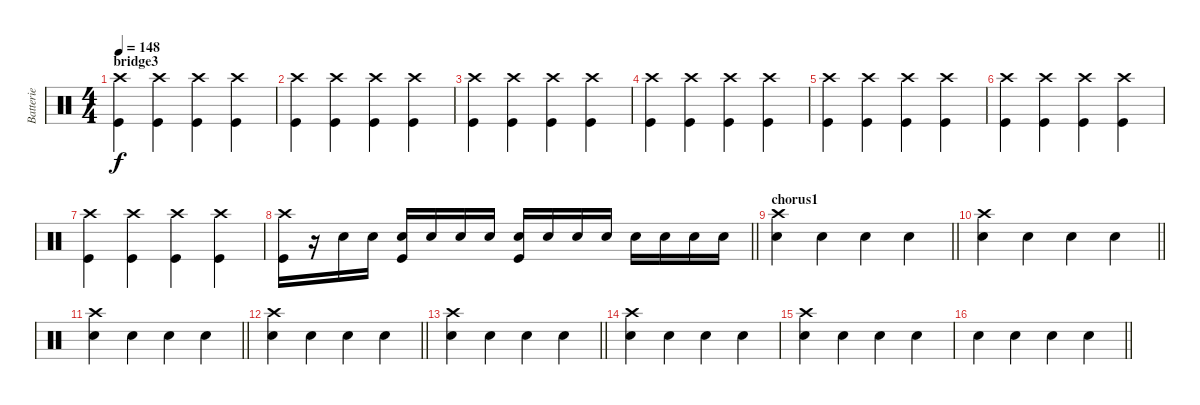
\track ("Batterie" "Batterie") {instrument percussion}
\staff {score}
\articulation defaults
\ts (4 4)
\section ("" "bridge3")
\tempo 148
\clef neutral
\ks c
("Crash high (hit)" "Kick (hit)").4{dy f} ("Crash high (hit)" "Kick (hit)").4 ("Crash high (hit)" "Kick (hit)").4 ("Crash high (hit)" "Kick (hit)").4 |
("Crash high (hit)" "Kick (hit)").4 ("Crash high (hit)" "Kick (hit)").4 ("Crash high (hit)" "Kick (hit)").4 ("Crash high (hit)" "Kick (hit)").4 |
("Crash high (hit)" "Kick (hit)").4 ("Crash high (hit)" "Kick (hit)").4 ("Crash high (hit)" "Kick (hit)").4 ("Crash high (hit)" "Kick (hit)").4 |
("Crash high (hit)" "Kick (hit)").4 ("Crash high (hit)" "Kick (hit)").4 ("Crash high (hit)" "Kick (hit)").4 ("Crash high (hit)" "Kick (hit)").4 |
("Crash high (hit)" "Kick (hit)").4 ("Crash high (hit)" "Kick (hit)").4 ("Crash high (hit)" "Kick (hit)").4 ("Crash high (hit)" "Kick (hit)").4 |
("Crash high (hit)" "Kick (hit)").4 ("Crash high (hit)" "Kick (hit)").4 ("Crash high (hit)" "Kick (hit)").4 ("Crash high (hit)" "Kick (hit)").4 |
("Crash high (hit)" "Kick (hit)").4 ("Crash high (hit)" "Kick (hit)").4 ("Crash high (hit)" "Kick (hit)").4 ("Crash high (hit)" "Kick (hit)").4 |
\barLineRight lightlight
("Crash high (hit)" "Kick (hit)").16 r.16 "Electric Snare (hit)".16 "Electric Snare (hit)".16 ("Electric Snare (hit)" "Kick (hit)").16 "Electric Snare (hit)".16 "Electric Snare (hit)".16 "Electric Snare (hit)".16 ("Electric Snare (hit)" "Kick (hit)").16 "Electric Snare (hit)".16 "Electric Snare (hit)".16 "Electric Snare (hit)".16 "Electric Snare (hit)".16 "Electric Snare (hit)".16 "Electric Snare (hit)".16 "Electric Snare (hit)".16 |
\section ("" "chorus1")
\barLineRight lightlight
("Crash high (hit)" "Electric Snare (hit)").4 "Electric Snare (hit)".4 "Electric Snare (hit)".4 "Electric Snare (hit)".4 |
\barLineRight lightlight
("Crash high (hit)" "Electric Snare (hit)").4 "Electric Snare (hit)".4 "Electric Snare (hit)".4 "Electric Snare (hit)".4 |
\barLineRight lightlight
("Crash high (hit)" "Electric Snare (hit)").4 "Electric Snare (hit)".4 "Electric Snare (hit)".4 "Electric Snare (hit)".4 |
\barLineRight lightlight
("Crash high (hit)" "Electric Snare (hit)").4 "Electric Snare (hit)".4 "Electric Snare (hit)".4 "Electric Snare (hit)".4 |
\barLineRight lightlight
("Crash high (hit)" "Electric Snare (hit)").4 "Electric Snare (hit)".4 "Electric Snare (hit)".4 "Electric Snare (hit)".4 |
("Crash high (hit)" "Electric Snare (hit)").4 "Electric Snare (hit)".4 "Electric Snare (hit)".4 "Electric Snare (hit)".4 |
("Crash high (hit)" "Electric Snare (hit)").4 "Electric Snare (hit)".4 "Electric Snare (hit)".4 "Electric Snare (hit)".4 |
\barLineRight lightlight "Electric Snare (hit)".4 "Electric Snare (hit)".4 "Electric Snare (hit)".4 "Electric Snare (hit)".4
